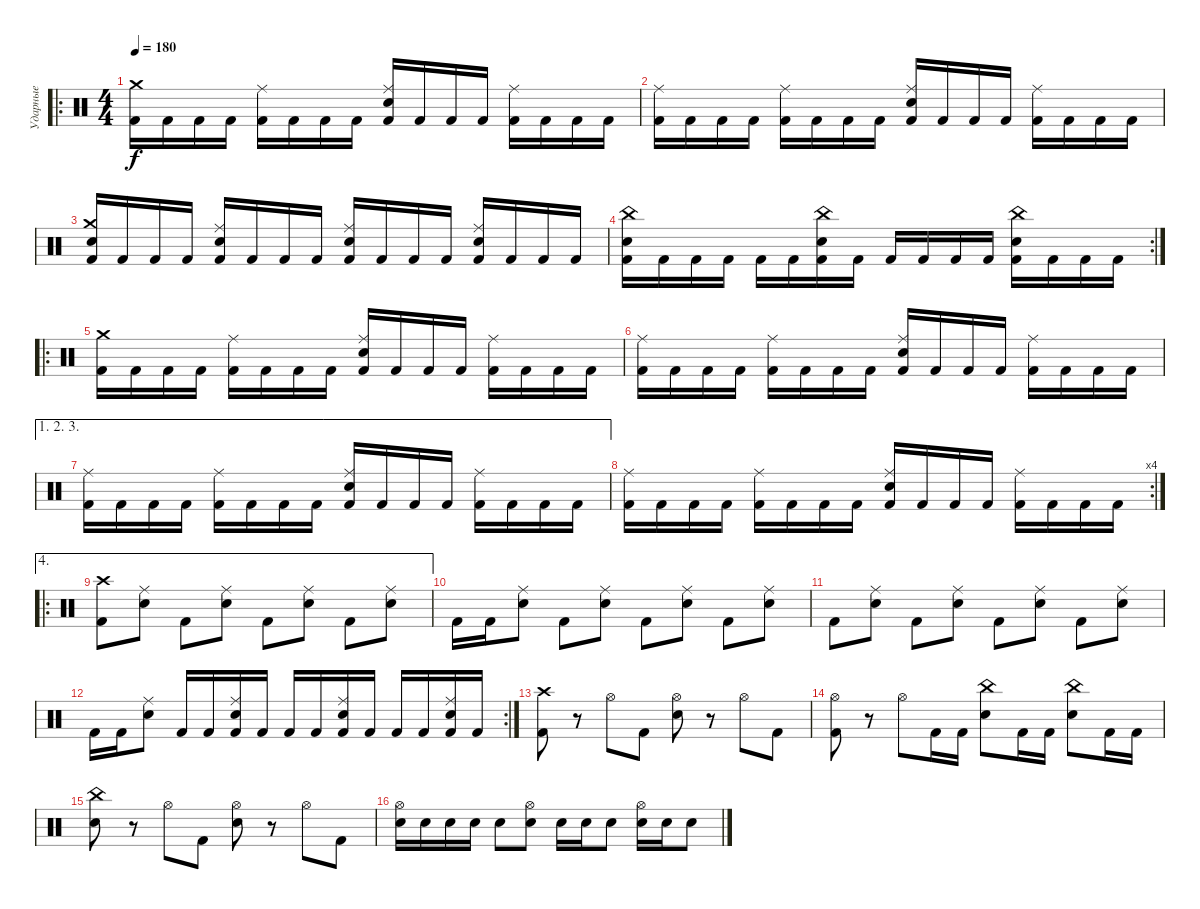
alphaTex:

\track ("Ударные" "Ударные") {instrument percussion}
\staff {score}
\articulation defaults
\ro
\ts (4 4)
\tempo 180
\clef neutral
\ks c
("Kick (hit) 2" "Crash medium (hit)").16{dy f} "Kick (hit) 2".16 "Kick (hit) 2".16 "Kick (hit) 2".16 ("Kick (hit) 2" "Ride (middle)").16 "Kick (hit) 2".16 "Kick (hit) 2".16 "Kick (hit) 2".16 ("Kick (hit) 2" "Electric Snare (hit)" "Ride (middle)").16 "Kick (hit) 2".16 "Kick (hit) 2".16 "Kick (hit) 2".16 ("Kick (hit) 2" "Ride (middle)").16 "Kick (hit) 2".16 "Kick (hit) 2".16 "Kick (hit) 2".16 |
("Kick (hit) 2" "Ride (middle)").16 "Kick (hit) 2".16 "Kick (hit) 2".16 "Kick (hit) 2".16 ("Kick (hit) 2" "Ride (middle)").16 "Kick (hit) 2".16 "Kick (hit) 2".16 "Kick (hit) 2".16 ("Kick (hit) 2" "Electric Snare (hit)" "Ride (middle)").16 "Kick (hit) 2".16 "Kick (hit) 2".16 "Kick (hit) 2".16 ("Kick (hit) 2" "Ride (middle)").16 "Kick (hit) 2".16 "Kick (hit) 2".16 "Kick (hit) 2".16 |
("Kick (hit) 2" "Electric Snare (hit)" "Crash medium (hit)").16 "Kick (hit) 2".16 "Kick (hit) 2".16 "Kick (hit) 2".16 ("Kick (hit) 2" "Electric Snare (hit)" "Ride (middle)").16 "Kick (hit) 2".16 "Kick (hit) 2".16 "Kick (hit) 2".16 ("Kick (hit) 2" "Electric Snare (hit)" "Ride (middle)").16 "Kick (hit) 2".16 "Kick (hit) 2".16 "Kick (hit) 2".16 ("Kick (hit) 2" "Electric Snare (hit)" "Ride (middle)").16 "Kick (hit) 2".16 "Kick (hit) 2".16 "Kick (hit) 2".16 |
\rc 2
("Kick (hit) 2" "Electric Snare (hit)" "China (hit)").16 "Kick (hit) 2".16 "Kick (hit) 2".16 "Kick (hit) 2".16 "Kick (hit) 2".16 "Kick (hit) 2".16 ("Kick (hit) 2" "Electric Snare (hit)" "China (hit)").16 "Kick (hit) 2".16 "Kick (hit) 2".16 "Kick (hit) 2".16 "Kick (hit) 2".16 "Kick (hit) 2".16 ("Kick (hit) 2" "Electric Snare (hit)" "China (hit)").16 "Kick (hit) 2".16 "Kick (hit) 2".16 "Kick (hit) 2".16 |
\ro
("Kick (hit) 2" "Crash medium (hit)").16 "Kick (hit) 2".16 "Kick (hit) 2".16 "Kick (hit) 2".16 ("Kick (hit) 2" "Ride (middle)").16 "Kick (hit) 2".16 "Kick (hit) 2".16 "Kick (hit) 2".16 ("Kick (hit) 2" "Electric Snare (hit)" "Ride (middle)").16 "Kick (hit) 2".16 "Kick (hit) 2".16 "Kick (hit) 2".16 ("Kick (hit) 2" "Ride (middle)").16 "Kick (hit) 2".16 "Kick (hit) 2".16 "Kick (hit) 2".16 |
("Kick (hit) 2" "Ride (middle)").16 "Kick (hit) 2".16 "Kick (hit) 2".16 "Kick (hit) 2".16 ("Kick (hit) 2" "Ride (middle)").16 "Kick (hit) 2".16 "Kick (hit) 2".16 "Kick (hit) 2".16 ("Kick (hit) 2" "Electric Snare (hit)" "Ride (middle)").16 "Kick (hit) 2".16 "Kick (hit) 2".16 "Kick (hit) 2".16 ("Kick (hit) 2" "Ride (middle)").16 "Kick (hit) 2".16 "Kick (hit) 2".16 "Kick (hit) 2".16 |
\ae (1 2 3)
("Kick (hit) 2" "Ride (middle)").16 "Kick (hit) 2".16 "Kick (hit) 2".16 "Kick (hit) 2".16 ("Kick (hit) 2" "Ride (middle)").16 "Kick (hit) 2".16 "Kick (hit) 2".16 "Kick (hit) 2".16 ("Kick (hit) 2" "Electric Snare (hit)" "Ride (middle)").16 "Kick (hit) 2".16 "Kick (hit) 2".16 "Kick (hit) 2".16 ("Kick (hit) 2" "Ride (middle)").16 "Kick (hit) 2".16 "Kick (hit) 2".16 "Kick (hit) 2".16 |
\rc 4
("Kick (hit) 2" "Ride (middle)").16 "Kick (hit) 2".16 "Kick (hit) 2".16 "Kick (hit) 2".16 ("Kick (hit) 2" "Ride (middle)").16 "Kick (hit) 2".16 "Kick (hit) 2".16 "Kick (hit) 2".16 ("Kick (hit) 2" "Electric Snare (hit)" "Ride (middle)").16 "Kick (hit) 2".16 "Kick (hit) 2".16 "Kick (hit) 2".16 ("Kick (hit) 2" "Ride (middle)").16 "Kick (hit) 2".16 "Kick (hit) 2".16 "Kick (hit) 2".16 |
\ae 4
\ro
("Kick (hit) 2" "Crash high (hit)").8 ("Electric Snare (hit)" "Ride (middle)").8 "Kick (hit) 2".8 ("Electric Snare (hit)" "Ride (middle)").8 "Kick (hit) 2".8 ("Electric Snare (hit)" "Ride (middle)").8 "Kick (hit) 2".8 ("Electric Snare (hit)" "Ride (middle)").8 |
"Kick (hit) 2".16 "Kick (hit) 2".16 ("Electric Snare (hit)" "Ride (middle)").8 "Kick (hit) 2".8 ("Electric Snare (hit)" "Ride (middle)").8 "Kick (hit) 2".8 ("Electric Snare (hit)" "Ride (middle)").8 "Kick (hit) 2".8 ("Electric Snare (hit)" "Ride (middle)").8 |
"Kick (hit) 2".8 ("Electric Snare (hit)" "Ride (middle)").8 "Kick (hit) 2".8 ("Electric Snare (hit)" "Ride (middle)").8 "Kick (hit) 2".8 ("Electric Snare (hit)" "Ride (middle)").8 "Kick (hit) 2".8 ("Electric Snare (hit)" "Ride (middle)").8 |
\rc 2 "Kick (hit) 2".16 "Kick (hit) 2".16
("Electric Snare (hit)" "Ride (middle)").8 "Kick (hit) 2".16 "Kick (hit) 2".16 ("Kick (hit) 2" "Electric Snare (hit)" "Ride (middle)").16 "Kick (hit) 2".16 "Kick (hit) 2".16 "Kick (hit) 2".16 ("Kick (hit) 2" "Electric Snare (hit)" "Ride (middle)").16 "Kick (hit) 2".16 "Kick (hit) 2".16 "Kick (hit) 2".16 ("Kick (hit) 2" "Electric Snare (hit)" "Ride (middle)").16 "Kick (hit) 2".16 |
("Kick (hit) 2" "Crash high (hit)").8 r.8 "Hi-Hat (open)".8 "Kick (hit) 2".8 ("Electric Snare (hit)" "Hi-Hat (open)").8 r.8 "Hi-Hat (open)".8 "Kick (hit) 2".8 |
("Kick (hit) 2" "Hi-Hat (open)").8 r.8 "Hi-Hat (open)".8 "Kick (hit) 2".16 "Kick (hit) 2".16 ("Electric Snare (hit)" "China (hit)").8 "Kick (hit) 2".16 "Kick (hit) 2".16 ("Electric Snare (hit)" "China (hit)").8 "Kick (hit) 2".16 "Kick (hit) 2".16 |
("Electric Snare (hit)" "China (hit)").8 r.8 "Hi-Hat (open)".8 "Kick (hit) 2".8 ("Electric Snare (hit)" "Hi-Hat (open)").8 r.8 "Hi-Hat (open)".8 "Kick (hit) 2".8 |
("Electric Snare (hit)" "Hi-Hat (open)").16 "Electric Snare (hit)".16 "Electric Snare (hit)".16 "Electric Snare (hit)".16 "Electric Snare (hit)".8 ("Electric Snare (hit)" "Hi-Hat (open)").8 "Electric Snare (hit)".16 "Electric Snare (hit)".16 "Electric Snare (hit)".8 ("Electric Snare (hit)" "Hi-Hat (open)").16 "Electric Snare (hit)".16 "Electric Snare (hit)".8
